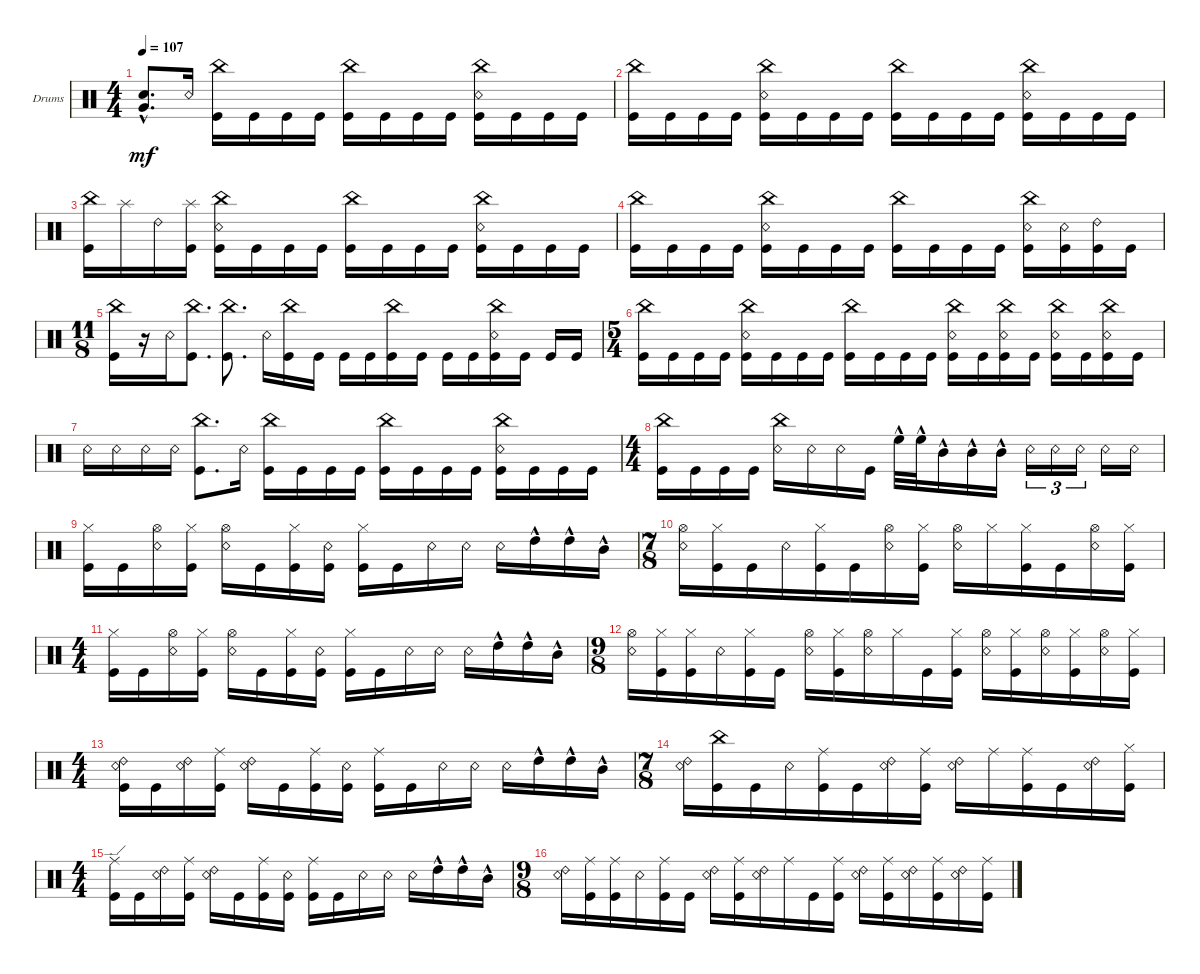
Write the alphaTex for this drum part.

\defaultSystemsLayout 4
\bracketExtendMode groupsimilarinstruments
\firstSystemTrackNameOrientation horizontal
\otherSystemsTrackNameOrientation horizontal
\track ("Drumkit" "Drums") {instrument percussion}
\staff {score}
\articulation defaults
\ts (4 4)
\tempo 107
\clef neutral
\scale
0.333333
\ks c
("Snare (hit) 2" "Very Low Tom (hit)"{hac}).8{d dy mf} "Snare (rim shot)".16 ("Kick (hit)" "China (hit)").16 "Kick (hit)".16 "Kick (hit)".16 "Kick (hit)".16 ("Kick (hit)" "China (hit)").16 "Kick (hit)".16 "Kick (hit)".16 "Kick (hit)".16 ("Kick (hit)" "China (hit)" "Snare (rim shot)").16 "Kick (hit)".16 "Kick (hit)".16 "Kick (hit)".16 |
\scale
0.333333 ("Kick (hit)" "China (hit)").16 "Kick (hit)".16 "Kick (hit)".16 "Kick (hit)".16 ("Kick (hit)" "China (hit)" "Snare (rim shot)").16 "Kick (hit)".16 "Kick (hit)".16 "Kick (hit)".16 ("Kick (hit)" "China (hit)").16 "Kick (hit)".16 "Kick (hit)".16 "Kick (hit)".16 ("Kick (hit)" "China (hit)" "Snare (rim shot)").16 "Kick (hit)".16 "Kick (hit)".16 "Kick (hit)".16 |
\scale
0.333333 ("Kick (hit)" "China (hit)").16 "Splash (hit)".16 "Ride (bell) 2".16 ("Splash (hit)" "Kick (hit)").16 ("Kick (hit)" "China (hit)" "Snare (rim shot)").16 "Kick (hit)".16 "Kick (hit)".16 "Kick (hit)".16 ("Kick (hit)" "China (hit)").16 "Kick (hit)".16 "Kick (hit)".16 "Kick (hit)".16 ("Kick (hit)" "China (hit)" "Snare (rim shot)").16 "Kick (hit)".16 "Kick (hit)".16 "Kick (hit)".16 |
\scale
0.333333 ("Kick (hit)" "China (hit)").16 "Kick (hit)".16 "Kick (hit)".16 "Kick (hit)".16 ("Kick (hit)" "China (hit)" "Snare (rim shot)").16 "Kick (hit)".16 "Kick (hit)".16 "Kick (hit)".16 ("Kick (hit)" "China (hit)").16 "Kick (hit)".16 "Kick (hit)".16 "Kick (hit)".16 ("Kick (hit)" "China (hit)" "Snare (rim shot)").16 ("Kick (hit)" "Snare (rim shot)").16 ("Kick (hit)" "Ride (bell) 2").16 "Kick (hit)".16 |
\ts (11 8)
\scale
0.333333 ("Kick (hit)" "China (hit)").16 r.16 "Snare (rim shot)".16 ("Kick (hit)" "China (hit)").8{d} ("Kick (hit)" "China (hit)").8{d} "Snare (rim shot)".16 ("Kick (hit)" "China (hit)").16 "Kick (hit)".16 "Kick (hit)".16 "Kick (hit)".16 ("Kick (hit)" "China (hit)").16 "Kick (hit)".16 "Kick (hit)".16 "Kick (hit)".16 ("Kick (hit)" "China (hit)" "Snare (rim shot)").16 "Kick (hit)".16 "Kick (hit)".16 "Kick (hit)".16 |
\ts (5 4)
\scale
0.333333 ("Kick (hit)" "China (hit)").16 "Kick (hit)".16 "Kick (hit)".16 "Kick (hit)".16 ("Kick (hit)" "China (hit)" "Snare (rim shot)").16 "Kick (hit)".16 "Kick (hit)".16 "Kick (hit)".16 ("Kick (hit)" "China (hit)").16 "Kick (hit)".16 "Kick (hit)".16 "Kick (hit)".16 ("Kick (hit)" "China (hit)" "Snare (rim shot)").16 "Kick (hit)".16 ("Kick (hit)" "China (hit)" "Snare (rim shot)").16 "Kick (hit)".16 ("Kick (hit)" "China (hit)" "Snare (rim shot)").16 "Kick (hit)".16 ("Kick (hit)" "China (hit)" "Snare (rim shot)").16 "Kick (hit)".16 |
\scale
0.333333 "Snare (rim shot)".16 "Snare (rim shot)".16 "Snare (rim shot)".16 "Snare (rim shot)".16 ("Kick (hit)" "China (hit)").8{d} "Snare (rim shot)".16 ("Kick (hit)" "China (hit)").16 "Kick (hit)".16 "Kick (hit)".16 "Kick (hit)".16 ("Kick (hit)" "China (hit)").16 "Kick (hit)".16 "Kick (hit)".16 "Kick (hit)".16 ("Kick (hit)" "China (hit)" "Snare (rim shot)").16 "Kick (hit)".16 "Kick (hit)".16 "Kick (hit)".16 |
\ts (4 4)
\scale
0.333333 ("Kick (hit)" "China (hit)").16 "Kick (hit)".16 "Kick (hit)".16 "Kick (hit)".16 ("China (hit)" "Snare (rim shot)").16 "Snare (rim shot)".16 "Snare (rim shot)".16 "Kick (hit)".16 "High Floor Tom (hit)"{hac}.32 "High Floor Tom (hit)"{hac}.32 "Mid Tom (hit)"{hac}.16 "Mid Tom (hit)"{hac}.16 "Mid Tom (hit)"{hac}.16 "Snare (rim shot)".16{tu (3 2)} "Snare (rim shot)".16{tu (3 2)} "Snare (rim shot)".16{tu (3 2)} "Snare (rim shot)".16 "Snare (rim shot)".16 |
\scale
0.333333 ("Kick (hit)" "Hi-Hat (closed)").16 "Kick (hit)".16 ("Hi-Hat (open)" "Snare (rim shot)").16 ("Hi-Hat (closed)" "Kick (hit)").16 ("Snare (rim shot)" "Hi-Hat (open)").16 "Kick (hit)".16 ("Kick (hit)" "Hi-Hat (closed)").16 ("Kick (hit)" "Snare (rim shot)").16 ("Kick (hit)" "Hi-Hat (closed)").16 "Kick (hit)".16 "Snare (rim shot)".16 "Snare (rim shot)".16 "Snare (rim shot)".16 "High Tom (hit)"{hac}.16 "High Tom (hit)"{hac}.16 "Mid Tom (hit)"{hac}.16 |
\ts (7 8)
\scale
0.333333 ("Snare (rim shot)" "Hi-Hat (open)").16 ("Kick (hit)" "Hi-Hat (closed)").16 "Kick (hit)".16 "Snare (rim shot)".16 ("Kick (hit)" "Hi-Hat (closed)").16 "Kick (hit)".16 ("Snare (rim shot)" "Hi-Hat (open)").16 ("Kick (hit)" "Hi-Hat (closed)").16 ("Snare (rim shot)" "Hi-Hat (open)").16 "Hi-Hat (closed)".16 ("Kick (hit)" "Hi-Hat (closed)").16 "Kick (hit)".16 ("Snare (rim shot)" "Hi-Hat (open)").16 ("Kick (hit)" "Hi-Hat (closed)").16 |
\ts (4 4)
\scale
0.333333 ("Kick (hit)" "Hi-Hat (closed)").16 "Kick (hit)".16 ("Hi-Hat (open)" "Snare (rim shot)").16 ("Hi-Hat (closed)" "Kick (hit)").16 ("Snare (rim shot)" "Hi-Hat (open)").16 "Kick (hit)".16 ("Kick (hit)" "Hi-Hat (closed)").16 ("Kick (hit)" "Snare (rim shot)").16 ("Kick (hit)" "Hi-Hat (closed)").16 "Kick (hit)".16 "Snare (rim shot)".16 "Snare (rim shot)".16 "Snare (rim shot)".16 "High Tom (hit)"{hac}.16 "High Tom (hit)"{hac}.16 "Mid Tom (hit)"{hac}.16 |
\ts (9 8)
\scale
0.333333 ("Snare (rim shot)" "Hi-Hat (open)").16 ("Kick (hit)" "Hi-Hat (closed)").16 ("Kick (hit)" "Hi-Hat (closed)").16 "Snare (rim shot)".16 ("Kick (hit)" "Hi-Hat (closed)").16 "Kick (hit)".16 ("Snare (rim shot)" "Hi-Hat (open)").16 ("Kick (hit)" "Hi-Hat (closed)").16 ("Snare (rim shot)" "Hi-Hat (open)").16 "Hi-Hat (closed)".16 "Kick (hit)".16 ("Kick (hit)" "Hi-Hat (closed)").16 ("Snare (rim shot)" "Hi-Hat (open)").16 ("Kick (hit)" "Hi-Hat (closed)").16 ("Snare (rim shot)" "Hi-Hat (open)").16 ("Kick (hit)" "Hi-Hat (closed)").16 ("Snare (rim shot)" "Hi-Hat (open)").16 ("Kick (hit)" "Hi-Hat (closed)").16 |
\ts (4 4)
("Kick (hit)" "Snare (rim shot)" "Ride (bell) 2").16 "Kick (hit)".16 ("Snare (rim shot)" "Ride (bell) 2").16 ("Kick (hit)" "Ride (middle)").16 ("Snare (rim shot)" "Ride (bell) 2").16 "Kick (hit)".16 ("Kick (hit)" "Ride (middle)").16 ("Kick (hit)" "Snare (rim shot)").16 ("Kick (hit)" "Ride (middle)").16 "Kick (hit)".16 "Snare (rim shot)".16 "Snare (rim shot)".16 "Snare (rim shot)".16 "High Tom (hit)"{hac}.16 "High Tom (hit)"{hac}.16 "Mid Tom (hit)"{hac}.16 |
\ts (7 8)
("Snare (rim shot)" "Ride (bell) 2").16 ("Kick (hit)" "China (hit)").16 "Kick (hit)".16 "Snare (rim shot)".16 ("Kick (hit)" "Ride (middle)").16 "Kick (hit)".16 ("Snare (rim shot)" "Ride (bell) 2").16 ("Kick (hit)" "Ride (middle)").16 ("Snare (rim shot)" "Ride (bell) 2").16 "Ride (middle)".16 ("Kick (hit)" "Ride (middle)").16 "Kick (hit)".16 ("Snare (rim shot)" "Ride (bell) 2").16 ("Kick (hit)" "Hi-Hat (closed)").16 |
\ts (4 4)
("Kick (hit)" "Ride (edge)").16 "Kick (hit)".16 ("Snare (rim shot)" "Ride (bell) 2").16 ("Kick (hit)" "Ride (middle)").16 ("Snare (rim shot)" "Ride (bell) 2").16 "Kick (hit)".16 ("Kick (hit)" "Ride (middle)").16 ("Kick (hit)" "Snare (rim shot)").16 ("Kick (hit)" "Ride (middle)").16 "Kick (hit)".16 "Snare (rim shot)".16 "Snare (rim shot)".16 "Snare (rim shot)".16 "High Tom (hit)"{hac}.16 "High Tom (hit)"{hac}.16 "Mid Tom (hit)"{hac}.16 |
\ts (9 8)
("Snare (rim shot)" "Ride (bell) 2").16 ("Kick (hit)" "Ride (middle)").16 ("Kick (hit)" "Ride (middle)").16 "Snare (rim shot)".16 ("Kick (hit)" "Ride (middle)").16 "Kick (hit)".16 ("Snare (rim shot)" "Ride (bell) 2").16 ("Kick (hit)" "Ride (middle)").16 ("Snare (rim shot)" "Ride (bell) 2").16 "Ride (middle)".16 "Kick (hit)".16 ("Kick (hit)" "Ride (middle)").16 ("Snare (rim shot)" "Ride (bell) 2").16 ("Kick (hit)" "Ride (middle)").16 ("Snare (rim shot)" "Ride (bell) 2").16 ("Kick (hit)" "Ride (middle)").16 ("Snare (rim shot)" "Ride (bell) 2").16 ("Kick (hit)" "Ride (middle)").16
